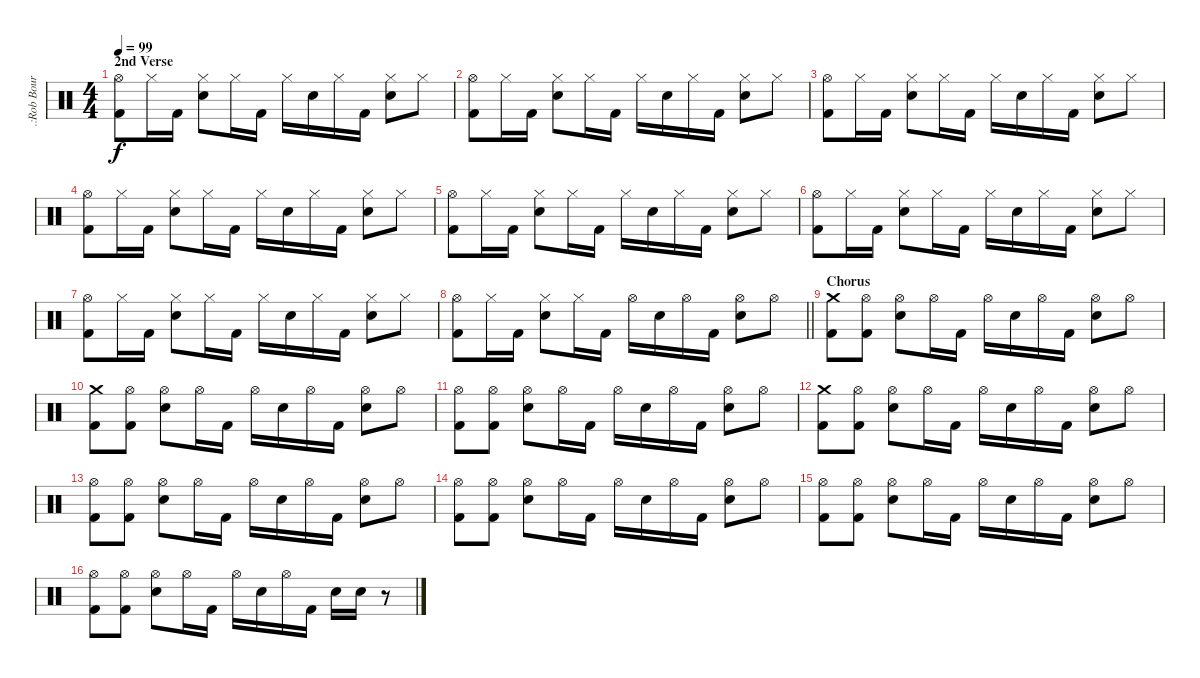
\track (".:Rob Bourdon - Drums:." ".:Rob Bour") {instrument percussion}
\staff {score}
\articulation defaults
\ts (4 4)
\section ("" "2nd Verse")
\tempo 99
\clef neutral
\ks c
("Hi-Hat (open)" "Kick (hit) 2").8{dy f} "Hi-Hat (closed)".16 "Kick (hit) 2".16 ("Hi-Hat (closed)" "Electric Snare (hit)").8 "Hi-Hat (closed)".16 "Kick (hit) 2".16 "Hi-Hat (closed)".16 "Electric Snare (hit)".16 "Hi-Hat (closed)".16 "Kick (hit) 2".16 ("Hi-Hat (closed)" "Electric Snare (hit)").8 "Hi-Hat (closed)".8 |
("Hi-Hat (open)" "Kick (hit) 2").8 "Hi-Hat (closed)".16 "Kick (hit) 2".16 ("Hi-Hat (closed)" "Electric Snare (hit)").8 "Hi-Hat (closed)".16 "Kick (hit) 2".16 "Hi-Hat (closed)".16 "Electric Snare (hit)".16 "Hi-Hat (closed)".16 "Kick (hit) 2".16 ("Hi-Hat (closed)" "Electric Snare (hit)").8 "Hi-Hat (closed)".8 |
("Hi-Hat (open)" "Kick (hit) 2").8 "Hi-Hat (closed)".16 "Kick (hit) 2".16 ("Hi-Hat (closed)" "Electric Snare (hit)").8 "Hi-Hat (closed)".16 "Kick (hit) 2".16 "Hi-Hat (closed)".16 "Electric Snare (hit)".16 "Hi-Hat (closed)".16 "Kick (hit) 2".16 ("Hi-Hat (closed)" "Electric Snare (hit)").8 "Hi-Hat (closed)".8 |
("Hi-Hat (open)" "Kick (hit) 2").8 "Hi-Hat (closed)".16 "Kick (hit) 2".16 ("Hi-Hat (closed)" "Electric Snare (hit)").8 "Hi-Hat (closed)".16 "Kick (hit) 2".16 "Hi-Hat (closed)".16 "Electric Snare (hit)".16 "Hi-Hat (closed)".16 "Kick (hit) 2".16 ("Hi-Hat (closed)" "Electric Snare (hit)").8 "Hi-Hat (closed)".8 |
("Hi-Hat (open)" "Kick (hit) 2").8 "Hi-Hat (closed)".16 "Kick (hit) 2".16 ("Hi-Hat (closed)" "Electric Snare (hit)").8 "Hi-Hat (closed)".16 "Kick (hit) 2".16 "Hi-Hat (closed)".16 "Electric Snare (hit)".16 "Hi-Hat (closed)".16 "Kick (hit) 2".16 ("Hi-Hat (closed)" "Electric Snare (hit)").8 "Hi-Hat (closed)".8 |
("Hi-Hat (open)" "Kick (hit) 2").8 "Hi-Hat (closed)".16 "Kick (hit) 2".16 ("Hi-Hat (closed)" "Electric Snare (hit)").8 "Hi-Hat (closed)".16 "Kick (hit) 2".16 "Hi-Hat (closed)".16 "Electric Snare (hit)".16 "Hi-Hat (closed)".16 "Kick (hit) 2".16 ("Hi-Hat (closed)" "Electric Snare (hit)").8 "Hi-Hat (closed)".8 |
("Hi-Hat (open)" "Kick (hit) 2").8 "Hi-Hat (closed)".16 "Kick (hit) 2".16 ("Hi-Hat (closed)" "Electric Snare (hit)").8 "Hi-Hat (closed)".16 "Kick (hit) 2".16 "Hi-Hat (closed)".16 "Electric Snare (hit)".16 "Hi-Hat (closed)".16 "Kick (hit) 2".16 ("Hi-Hat (closed)" "Electric Snare (hit)").8 "Hi-Hat (closed)".8 |
\barLineRight lightlight
("Hi-Hat (open)" "Kick (hit) 2").8 "Hi-Hat (closed)".16 "Kick (hit) 2".16 ("Hi-Hat (closed)" "Electric Snare (hit)").8 "Hi-Hat (closed)".16 "Kick (hit) 2".16 "Hi-Hat (open)".16 "Electric Snare (hit)".16 "Hi-Hat (open)".16 "Kick (hit) 2".16 ("Hi-Hat (open)" "Electric Snare (hit)").8 "Hi-Hat (open)".8 |
\section ("" "Chorus")
("Crash medium (hit)" "Kick (hit) 2").8 ("Hi-Hat (open)" "Kick (hit) 2").8 ("Hi-Hat (open)" "Electric Snare (hit)").8 "Hi-Hat (open)".16 "Kick (hit) 2".16 "Hi-Hat (open)".16 "Electric Snare (hit)".16 "Hi-Hat (open)".16 "Kick (hit) 2".16 ("Hi-Hat (open)" "Electric Snare (hit)").8 "Hi-Hat (open)".8 |
("Crash medium (hit)" "Kick (hit) 2").8 ("Hi-Hat (open)" "Kick (hit) 2").8 ("Hi-Hat (open)" "Electric Snare (hit)").8 "Hi-Hat (open)".16 "Kick (hit) 2".16 "Hi-Hat (open)".16 "Electric Snare (hit)".16 "Hi-Hat (open)".16 "Kick (hit) 2".16 ("Hi-Hat (open)" "Electric Snare (hit)").8 "Hi-Hat (open)".8 |
("Hi-Hat (open)" "Kick (hit) 2").8 ("Hi-Hat (open)" "Kick (hit) 2").8 ("Hi-Hat (open)" "Electric Snare (hit)").8 "Hi-Hat (open)".16 "Kick (hit) 2".16 "Hi-Hat (open)".16 "Electric Snare (hit)".16 "Hi-Hat (open)".16 "Kick (hit) 2".16 ("Hi-Hat (open)" "Electric Snare (hit)").8 "Hi-Hat (open)".8 |
("Crash medium (hit)" "Kick (hit) 2").8 ("Hi-Hat (open)" "Kick (hit) 2").8 ("Hi-Hat (open)" "Electric Snare (hit)").8 "Hi-Hat (open)".16 "Kick (hit) 2".16 "Hi-Hat (open)".16 "Electric Snare (hit)".16 "Hi-Hat (open)".16 "Kick (hit) 2".16 ("Hi-Hat (open)" "Electric Snare (hit)").8 "Hi-Hat (open)".8 |
("Hi-Hat (open)" "Kick (hit) 2").8 ("Hi-Hat (open)" "Kick (hit) 2").8 ("Hi-Hat (open)" "Electric Snare (hit)").8 "Hi-Hat (open)".16 "Kick (hit) 2".16 "Hi-Hat (open)".16 "Electric Snare (hit)".16 "Hi-Hat (open)".16 "Kick (hit) 2".16 ("Hi-Hat (open)" "Electric Snare (hit)").8 "Hi-Hat (open)".8 |
("Hi-Hat (open)" "Kick (hit) 2").8 ("Hi-Hat (open)" "Kick (hit) 2").8 ("Hi-Hat (open)" "Electric Snare (hit)").8 "Hi-Hat (open)".16 "Kick (hit) 2".16 "Hi-Hat (open)".16 "Electric Snare (hit)".16 "Hi-Hat (open)".16 "Kick (hit) 2".16 ("Hi-Hat (open)" "Electric Snare (hit)").8 "Hi-Hat (open)".8 |
("Hi-Hat (open)" "Kick (hit) 2").8 ("Hi-Hat (open)" "Kick (hit) 2").8 ("Hi-Hat (open)" "Electric Snare (hit)").8 "Hi-Hat (open)".16 "Kick (hit) 2".16 "Hi-Hat (open)".16 "Electric Snare (hit)".16 "Hi-Hat (open)".16 "Kick (hit) 2".16 ("Hi-Hat (open)" "Electric Snare (hit)").8 "Hi-Hat (open)".8 |
("Hi-Hat (open)" "Kick (hit) 2").8 ("Hi-Hat (open)" "Kick (hit) 2").8 ("Hi-Hat (open)" "Electric Snare (hit)").8 "Hi-Hat (open)".16 "Kick (hit) 2".16 "Hi-Hat (open)".16 "Electric Snare (hit)".16 "Hi-Hat (open)".16 "Kick (hit) 2".16 "Electric Snare (hit)".16 "Electric Snare (hit)".16 r.8
